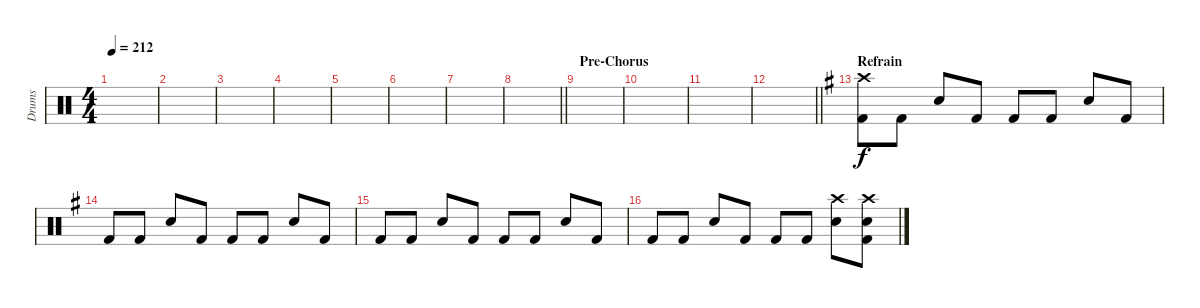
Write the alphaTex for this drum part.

\track ("Drums" "Drums") {instrument percussion}
\staff {score}
\articulation defaults
\ts (4 4)
\tempo 212
\clef neutral
\ks c
|
|
|
|
|
|
|
\barLineRight lightlight
|
\section ("" "Pre-Chorus")
|
|
|
\barLineRight lightlight
|
\section ("" "Refrain")
\ks eminor
("Crash high (hit)" "Kick (hit) 2").8 "Kick (hit) 2".8 "Snare (hit) 2".8 "Kick (hit) 2".8 "Kick (hit) 2".8 "Kick (hit) 2".8 "Snare (hit) 2".8 "Kick (hit) 2".8 |
"Kick (hit) 2".8 "Kick (hit) 2".8 "Snare (hit) 2".8 "Kick (hit) 2".8 "Kick (hit) 2".8 "Kick (hit) 2".8 "Snare (hit) 2".8 "Kick (hit) 2".8 |
"Kick (hit) 2".8 "Kick (hit) 2".8 "Snare (hit) 2".8 "Kick (hit) 2".8 "Kick (hit) 2".8 "Kick (hit) 2".8 "Snare (hit) 2".8 "Kick (hit) 2".8 |
"Kick (hit) 2".8 "Kick (hit) 2".8 "Snare (hit) 2".8 "Kick (hit) 2".8 "Kick (hit) 2".8 "Kick (hit) 2".8 ("Crash high (hit)" "Snare (hit) 2").8 ("Crash high (hit)" "Snare (hit) 2" "Kick (hit) 2").8
